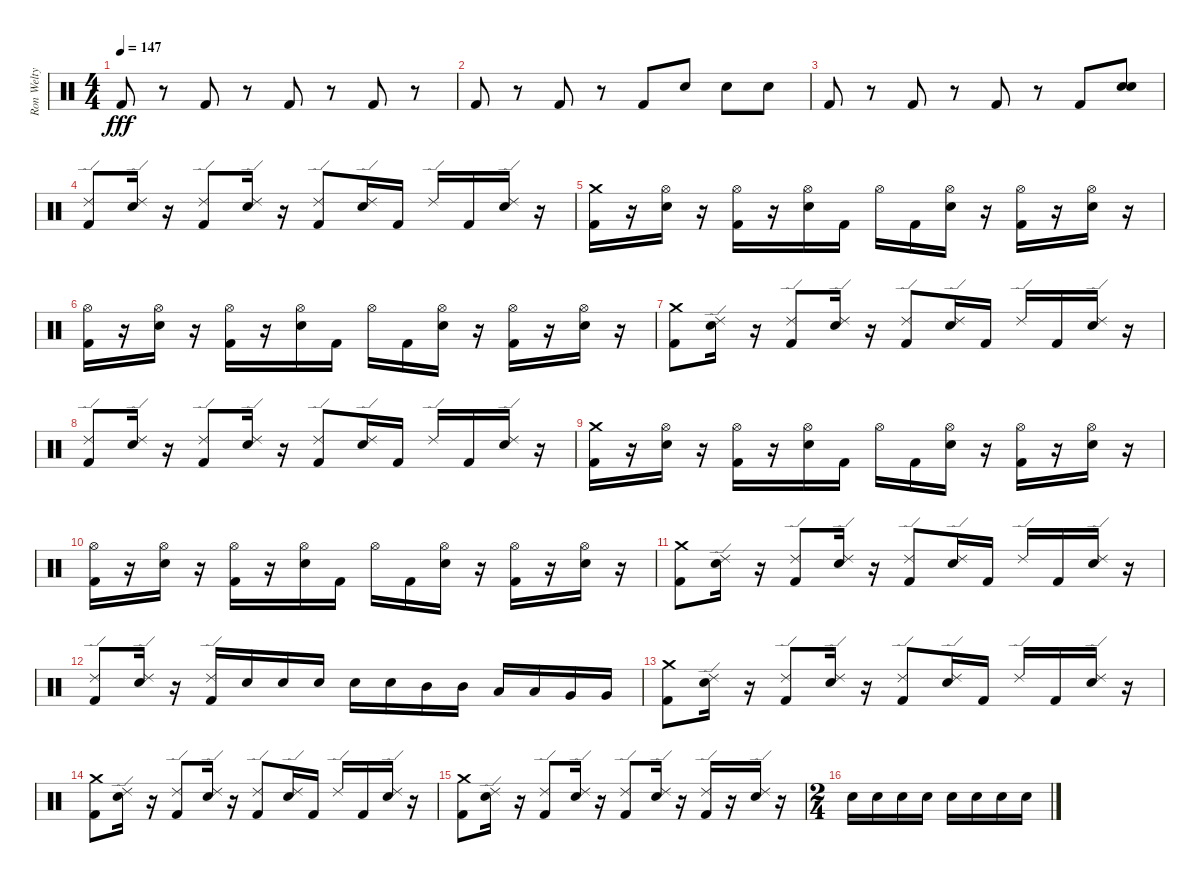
\track ("Ron Welty" "Ron Welty") {instrument percussion}
\staff {score}
\articulation defaults
\ts (4 4)
\tempo 147
\clef neutral
\ks c "Kick (hit) 2".8{dy fff}
r.8 "Kick (hit) 2".8 r.8 "Kick (hit) 2".8 r.8 "Kick (hit) 2".8 r.8 |
"Kick (hit) 2".8 r.8 "Kick (hit) 2".8 r.8 "Kick (hit) 2".8 "Snare (hit) 2".8 "Snare (hit) 2".8 "Snare (hit) 2".8 |
"Kick (hit) 2".8 r.8 "Kick (hit) 2".8 r.8 "Kick (hit) 2".8 r.8 "Kick (hit) 2".8 ("Snare (hit) 2" "Snare (hit) 2").8 |
("Kick (hit) 2" "Ride (edge) 2").8 ("Snare (hit) 2" "Ride (edge) 2").16 r.16 ("Kick (hit) 2" "Ride (edge) 2").8 ("Snare (hit) 2" "Ride (edge) 2").16 r.16 ("Kick (hit) 2" "Ride (edge) 2").8 ("Snare (hit) 2" "Ride (edge) 2").16 "Kick (hit) 2".16 "Ride (edge) 2".16 "Kick (hit) 2".16 ("Snare (hit) 2" "Ride (edge) 2").16 r.16 |
("Kick (hit) 2" "Crash medium (hit)").16 r.16 ("Hi-Hat (open)" "Snare (hit) 2").16 r.16 ("Hi-Hat (open)" "Kick (hit) 2").16 r.16 ("Hi-Hat (open)" "Snare (hit) 2").16 "Kick (hit) 2".16 "Hi-Hat (open)".16 "Kick (hit) 2".16 ("Hi-Hat (open)" "Snare (hit) 2").16 r.16 ("Hi-Hat (open)" "Kick (hit) 2").16 r.16 ("Hi-Hat (open)" "Snare (hit) 2").16 r.16 |
("Hi-Hat (open)" "Kick (hit) 2").16 r.16 ("Hi-Hat (open)" "Snare (hit) 2").16 r.16 ("Hi-Hat (open)" "Kick (hit) 2").16 r.16 ("Hi-Hat (open)" "Snare (hit) 2").16 "Kick (hit) 2".16 "Hi-Hat (open)".16 "Kick (hit) 2".16 ("Hi-Hat (open)" "Snare (hit) 2").16 r.16 ("Hi-Hat (open)" "Kick (hit) 2").16 r.16 ("Hi-Hat (open)" "Snare (hit) 2").16 r.16 |
("Kick (hit) 2" "Crash medium (hit)").8 ("Snare (hit) 2" "Ride (edge) 2").16 r.16 ("Kick (hit) 2" "Ride (edge) 2").8 ("Snare (hit) 2" "Ride (edge) 2").16 r.16 ("Kick (hit) 2" "Ride (edge) 2").8 ("Snare (hit) 2" "Ride (edge) 2").16 "Kick (hit) 2".16 "Ride (edge) 2".16 "Kick (hit) 2".16 ("Snare (hit) 2" "Ride (edge) 2").16 r.16 |
("Kick (hit) 2" "Ride (edge) 2").8 ("Snare (hit) 2" "Ride (edge) 2").16 r.16 ("Kick (hit) 2" "Ride (edge) 2").8 ("Snare (hit) 2" "Ride (edge) 2").16 r.16 ("Kick (hit) 2" "Ride (edge) 2").8 ("Snare (hit) 2" "Ride (edge) 2").16 "Kick (hit) 2".16 "Ride (edge) 2".16 "Kick (hit) 2".16 ("Snare (hit) 2" "Ride (edge) 2").16 r.16 |
("Kick (hit) 2" "Crash medium (hit)").16 r.16 ("Hi-Hat (open)" "Snare (hit) 2").16 r.16 ("Hi-Hat (open)" "Kick (hit) 2").16 r.16 ("Hi-Hat (open)" "Snare (hit) 2").16 "Kick (hit) 2".16 "Hi-Hat (open)".16 "Kick (hit) 2".16 ("Hi-Hat (open)" "Snare (hit) 2").16 r.16 ("Hi-Hat (open)" "Kick (hit) 2").16 r.16 ("Hi-Hat (open)" "Snare (hit) 2").16 r.16 |
("Hi-Hat (open)" "Kick (hit) 2").16 r.16 ("Hi-Hat (open)" "Snare (hit) 2").16 r.16 ("Hi-Hat (open)" "Kick (hit) 2").16 r.16 ("Hi-Hat (open)" "Snare (hit) 2").16 "Kick (hit) 2".16 "Hi-Hat (open)".16 "Kick (hit) 2".16 ("Hi-Hat (open)" "Snare (hit) 2").16 r.16 ("Hi-Hat (open)" "Kick (hit) 2").16 r.16 ("Hi-Hat (open)" "Snare (hit) 2").16 r.16 |
("Kick (hit) 2" "Crash medium (hit)").8 ("Snare (hit) 2" "Ride (edge) 2").16 r.16 ("Kick (hit) 2" "Ride (edge) 2").8 ("Snare (hit) 2" "Ride (edge) 2").16 r.16 ("Kick (hit) 2" "Ride (edge) 2").8 ("Snare (hit) 2" "Ride (edge) 2").16 "Kick (hit) 2".16 "Ride (edge) 2".16 "Kick (hit) 2".16 ("Snare (hit) 2" "Ride (edge) 2").16 r.16 |
("Kick (hit) 2" "Ride (edge) 2").8 ("Snare (hit) 2" "Ride (edge) 2").16 r.16 ("Kick (hit) 2" "Ride (edge) 2").16 "Snare (hit) 2".16 "Snare (hit) 2".16 "Snare (hit) 2".16 "Snare (hit) 2".16 "Snare (hit) 2".16 "Mid Tom (hit)".16 "Mid Tom (hit)".16 "Low Tom (hit)".16 "Low Tom (hit)".16 "Very Low Tom (hit)".16 "Very Low Tom (hit)".16 |
("Kick (hit) 2" "Crash medium (hit)").8 ("Snare (hit) 2" "Ride (edge) 2").16 r.16 ("Kick (hit) 2" "Ride (edge) 2").8 ("Snare (hit) 2" "Ride (edge) 2").16 r.16 ("Kick (hit) 2" "Ride (edge) 2").8 ("Snare (hit) 2" "Ride (edge) 2").16 "Kick (hit) 2".16 "Ride (edge) 2".16 "Kick (hit) 2".16 ("Snare (hit) 2" "Ride (edge) 2").16 r.16 |
("Kick (hit) 2" "Crash medium (hit)").8 ("Snare (hit) 2" "Ride (edge) 2").16 r.16 ("Kick (hit) 2" "Ride (edge) 2").8 ("Snare (hit) 2" "Ride (edge) 2").16 r.16 ("Kick (hit) 2" "Ride (edge) 2").8 ("Snare (hit) 2" "Ride (edge) 2").16 "Kick (hit) 2".16 "Ride (edge) 2".16 "Kick (hit) 2".16 ("Snare (hit) 2" "Ride (edge) 2").16 r.16 |
("Kick (hit) 2" "Crash medium (hit)").8 ("Snare (hit) 2" "Ride (edge) 2").16 r.16 ("Kick (hit) 2" "Ride (edge) 2").8 ("Snare (hit) 2" "Ride (edge) 2").16 r.16 ("Kick (hit) 2" "Ride (edge) 2").8 ("Snare (hit) 2" "Ride (edge) 2").16 r.16 ("Ride (edge) 2" "Kick (hit) 2").16 r.16 ("Snare (hit) 2" "Ride (edge) 2").16 r.16 |
\ts (2 4)
"Snare (hit) 2".16 "Snare (hit) 2".16 "Snare (hit) 2".16 "Snare (hit) 2".16 "Snare (hit) 2".16 "Snare (hit) 2".16 "Snare (hit) 2".16 "Snare (hit) 2".16
